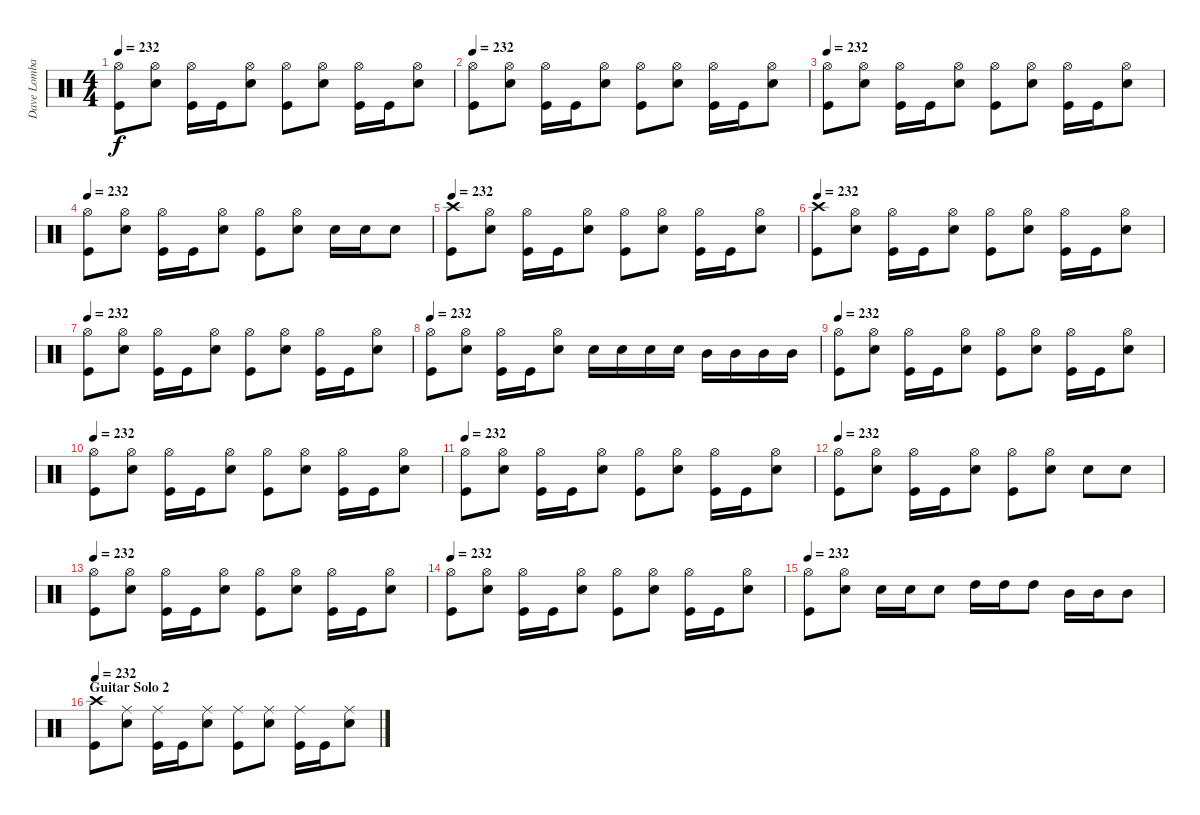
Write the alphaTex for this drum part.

\track ("Dave Lombardo" "Dave Lomba") {instrument percussion}
\staff {score}
\articulation defaults
\ts (4 4)
\tempo 232
\clef neutral
\ks c
("Hi-Hat (open)" "Kick (hit)").8{dy f} ("Hi-Hat (open)" "Snare (hit) 2").8 ("Hi-Hat (open)" "Kick (hit)").16 "Kick (hit)".16 ("Hi-Hat (open)" "Snare (hit) 2").8 ("Hi-Hat (open)" "Kick (hit)").8 ("Hi-Hat (open)" "Snare (hit) 2").8 ("Hi-Hat (open)" "Kick (hit)").16 "Kick (hit)".16 ("Hi-Hat (open)" "Snare (hit) 2").8 |
\tempo 232
("Hi-Hat (open)" "Kick (hit)").8 ("Hi-Hat (open)" "Snare (hit) 2").8 ("Hi-Hat (open)" "Kick (hit)").16 "Kick (hit)".16 ("Hi-Hat (open)" "Snare (hit) 2").8 ("Hi-Hat (open)" "Kick (hit)").8 ("Hi-Hat (open)" "Snare (hit) 2").8 ("Hi-Hat (open)" "Kick (hit)").16 "Kick (hit)".16 ("Hi-Hat (open)" "Snare (hit) 2").8 |
\tempo 232
("Hi-Hat (open)" "Kick (hit)").8 ("Hi-Hat (open)" "Snare (hit) 2").8 ("Hi-Hat (open)" "Kick (hit)").16 "Kick (hit)".16 ("Hi-Hat (open)" "Snare (hit) 2").8 ("Hi-Hat (open)" "Kick (hit)").8 ("Hi-Hat (open)" "Snare (hit) 2").8 ("Hi-Hat (open)" "Kick (hit)").16 "Kick (hit)".16 ("Hi-Hat (open)" "Snare (hit) 2").8 |
\tempo 232
("Hi-Hat (open)" "Kick (hit)").8 ("Hi-Hat (open)" "Snare (hit) 2").8 ("Hi-Hat (open)" "Kick (hit)").16 "Kick (hit)".16 ("Hi-Hat (open)" "Snare (hit) 2").8 ("Hi-Hat (open)" "Kick (hit)").8 ("Hi-Hat (open)" "Snare (hit) 2").8 "Snare (hit) 2".16 "Snare (hit) 2".16 "Snare (hit) 2".8 |
\tempo 232
("Crash high (hit)" "Kick (hit)").8 ("Hi-Hat (open)" "Snare (hit) 2").8 ("Hi-Hat (open)" "Kick (hit)").16 "Kick (hit)".16 ("Hi-Hat (open)" "Snare (hit) 2").8 ("Hi-Hat (open)" "Kick (hit)").8 ("Hi-Hat (open)" "Snare (hit) 2").8 ("Hi-Hat (open)" "Kick (hit)").16 "Kick (hit)".16 ("Hi-Hat (open)" "Snare (hit) 2").8 |
\tempo 232
("Crash high (hit)" "Kick (hit)").8 ("Hi-Hat (open)" "Snare (hit) 2").8 ("Hi-Hat (open)" "Kick (hit)").16 "Kick (hit)".16 ("Hi-Hat (open)" "Snare (hit) 2").8 ("Hi-Hat (open)" "Kick (hit)").8 ("Hi-Hat (open)" "Snare (hit) 2").8 ("Hi-Hat (open)" "Kick (hit)").16 "Kick (hit)".16 ("Hi-Hat (open)" "Snare (hit) 2").8 |
\tempo 232
("Hi-Hat (open)" "Kick (hit)").8 ("Hi-Hat (open)" "Snare (hit) 2").8 ("Hi-Hat (open)" "Kick (hit)").16 "Kick (hit)".16 ("Hi-Hat (open)" "Snare (hit) 2").8 ("Hi-Hat (open)" "Kick (hit)").8 ("Hi-Hat (open)" "Snare (hit) 2").8 ("Hi-Hat (open)" "Kick (hit)").16 "Kick (hit)".16 ("Hi-Hat (open)" "Snare (hit) 2").8 |
\tempo 232
("Hi-Hat (open)" "Kick (hit)").8 ("Hi-Hat (open)" "Snare (hit) 2").8 ("Hi-Hat (open)" "Kick (hit)").16 "Kick (hit)".16 ("Hi-Hat (open)" "Snare (hit) 2").8 "Snare (hit) 2".16 "Snare (hit) 2".16 "Snare (hit) 2".16 "Snare (hit) 2".16 "Mid Tom (hit)".16 "Mid Tom (hit)".16 "Mid Tom (hit)".16 "Mid Tom (hit)".16 |
\tempo 232
("Hi-Hat (open)" "Kick (hit)").8 ("Hi-Hat (open)" "Snare (hit) 2").8 ("Hi-Hat (open)" "Kick (hit)").16 "Kick (hit)".16 ("Hi-Hat (open)" "Snare (hit) 2").8 ("Hi-Hat (open)" "Kick (hit)").8 ("Hi-Hat (open)" "Snare (hit) 2").8 ("Hi-Hat (open)" "Kick (hit)").16 "Kick (hit)".16 ("Hi-Hat (open)" "Snare (hit) 2").8 |
\tempo 232
("Hi-Hat (open)" "Kick (hit)").8 ("Hi-Hat (open)" "Snare (hit) 2").8 ("Hi-Hat (open)" "Kick (hit)").16 "Kick (hit)".16 ("Hi-Hat (open)" "Snare (hit) 2").8 ("Hi-Hat (open)" "Kick (hit)").8 ("Hi-Hat (open)" "Snare (hit) 2").8 ("Hi-Hat (open)" "Kick (hit)").16 "Kick (hit)".16 ("Hi-Hat (open)" "Snare (hit) 2").8 |
\tempo 232
("Hi-Hat (open)" "Kick (hit)").8 ("Hi-Hat (open)" "Snare (hit) 2").8 ("Hi-Hat (open)" "Kick (hit)").16 "Kick (hit)".16 ("Hi-Hat (open)" "Snare (hit) 2").8 ("Hi-Hat (open)" "Kick (hit)").8 ("Hi-Hat (open)" "Snare (hit) 2").8 ("Hi-Hat (open)" "Kick (hit)").16 "Kick (hit)".16 ("Hi-Hat (open)" "Snare (hit) 2").8 |
\tempo 232
("Hi-Hat (open)" "Kick (hit)").8 ("Hi-Hat (open)" "Snare (hit) 2").8 ("Hi-Hat (open)" "Kick (hit)").16 "Kick (hit)".16 ("Hi-Hat (open)" "Snare (hit) 2").8 ("Hi-Hat (open)" "Kick (hit)").8 ("Hi-Hat (open)" "Snare (hit) 2").8 "Snare (hit) 2".8 "Snare (hit) 2".8 |
\tempo 232
("Hi-Hat (open)" "Kick (hit)").8 ("Hi-Hat (open)" "Snare (hit) 2").8 ("Hi-Hat (open)" "Kick (hit)").16 "Kick (hit)".16 ("Hi-Hat (open)" "Snare (hit) 2").8 ("Hi-Hat (open)" "Kick (hit)").8 ("Hi-Hat (open)" "Snare (hit) 2").8 ("Hi-Hat (open)" "Kick (hit)").16 "Kick (hit)".16 ("Hi-Hat (open)" "Snare (hit) 2").8 |
\tempo 232
("Hi-Hat (open)" "Kick (hit)").8 ("Hi-Hat (open)" "Snare (hit) 2").8 ("Hi-Hat (open)" "Kick (hit)").16 "Kick (hit)".16 ("Hi-Hat (open)" "Snare (hit) 2").8 ("Hi-Hat (open)" "Kick (hit)").8 ("Hi-Hat (open)" "Snare (hit) 2").8 ("Hi-Hat (open)" "Kick (hit)").16 "Kick (hit)".16 ("Hi-Hat (open)" "Snare (hit) 2").8 |
\tempo 232
("Hi-Hat (open)" "Kick (hit)").8 ("Hi-Hat (open)" "Snare (hit) 2").8 "Snare (hit) 2".16 "Snare (hit) 2".16 "Snare (hit) 2".8 "High Tom (hit)".16 "High Tom (hit)".16 "High Tom (hit)".8 "Mid Tom (hit)".16 "Mid Tom (hit)".16 "Mid Tom (hit)".8 |
\section ("" "Guitar Solo 2")
\tempo 232
("Crash high (hit)" "Kick (hit)").8 ("Ride (middle)" "Snare (hit) 2").8 ("Ride (middle)" "Kick (hit)").16 "Kick (hit)".16 ("Ride (middle)" "Snare (hit) 2").8 ("Ride (middle)" "Kick (hit)").8 ("Ride (middle)" "Snare (hit) 2").8 ("Ride (middle)" "Kick (hit)").16 "Kick (hit)".16 ("Ride (middle)" "Snare (hit) 2").8
